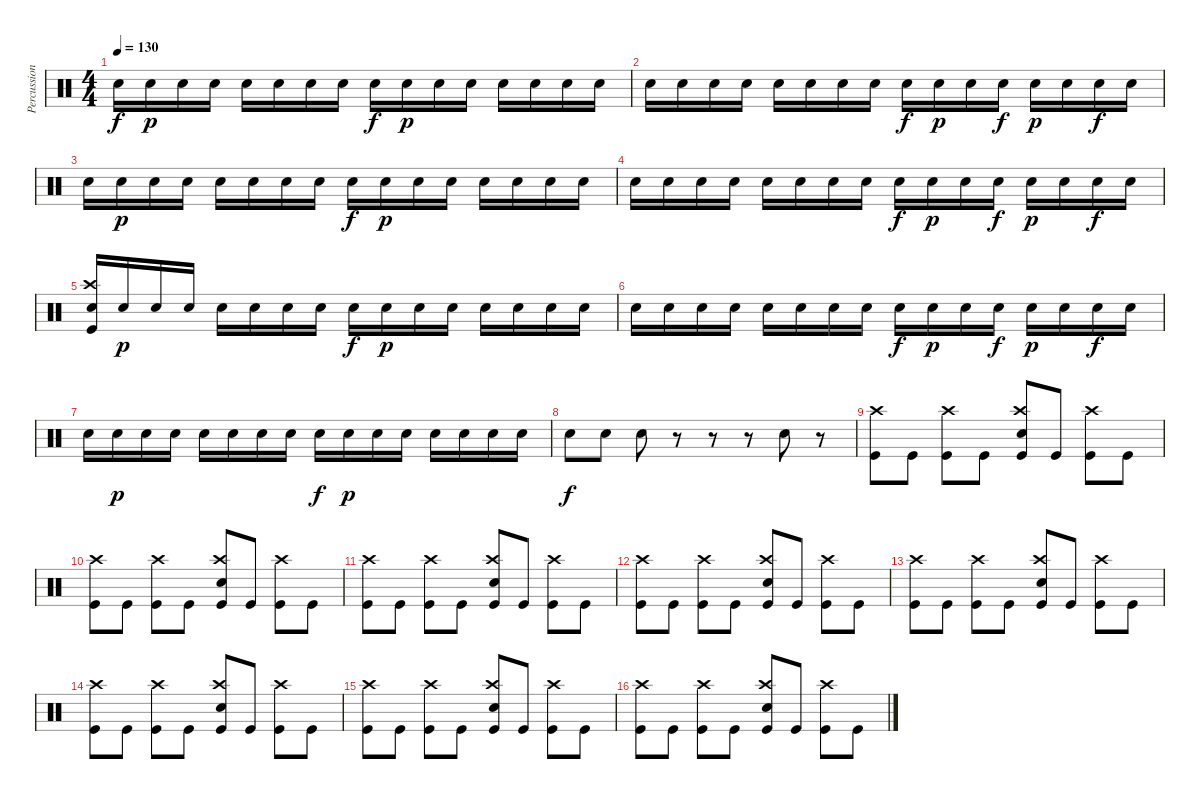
\track ("Percussion" "Percussion") {instrument percussion}
\staff {score}
\articulation defaults
\ts (4 4)
\tempo 130
\clef neutral
\ks c "Electric Snare (hit)".16{dy f} "Electric Snare (hit)".16{dy p} "Electric Snare (hit)".16 "Electric Snare (hit)".16 "Electric Snare (hit)".16 "Electric Snare (hit)".16 "Electric Snare (hit)".16 "Electric Snare (hit)".16 "Electric Snare (hit)".16{dy f} "Electric Snare (hit)".16{dy p} "Electric Snare (hit)".16 "Electric Snare (hit)".16 "Electric Snare (hit)".16 "Electric Snare (hit)".16 "Electric Snare (hit)".16 "Electric Snare (hit)".16
|
"Electric Snare (hit)".16 "Electric Snare (hit)".16 "Electric Snare (hit)".16 "Electric Snare (hit)".16 "Electric Snare (hit)".16 "Electric Snare (hit)".16 "Electric Snare (hit)".16 "Electric Snare (hit)".16 "Electric Snare (hit)".16{dy f} "Electric Snare (hit)".16{dy p} "Electric Snare (hit)".16 "Electric Snare (hit)".16{dy f} "Electric Snare (hit)".16{dy p} "Electric Snare (hit)".16 "Electric Snare (hit)".16{dy f} "Electric Snare (hit)".16 |
"Electric Snare (hit)".16 "Electric Snare (hit)".16{dy p} "Electric Snare (hit)".16 "Electric Snare (hit)".16 "Electric Snare (hit)".16 "Electric Snare (hit)".16 "Electric Snare (hit)".16 "Electric Snare (hit)".16 "Electric Snare (hit)".16{dy f} "Electric Snare (hit)".16{dy p} "Electric Snare (hit)".16 "Electric Snare (hit)".16 "Electric Snare (hit)".16 "Electric Snare (hit)".16 "Electric Snare (hit)".16 "Electric Snare (hit)".16 |
"Electric Snare (hit)".16 "Electric Snare (hit)".16 "Electric Snare (hit)".16 "Electric Snare (hit)".16 "Electric Snare (hit)".16 "Electric Snare (hit)".16 "Electric Snare (hit)".16 "Electric Snare (hit)".16 "Electric Snare (hit)".16{dy f} "Electric Snare (hit)".16{dy p} "Electric Snare (hit)".16 "Electric Snare (hit)".16{dy f} "Electric Snare (hit)".16{dy p} "Electric Snare (hit)".16 "Electric Snare (hit)".16{dy f} "Electric Snare (hit)".16 |
("Crash high (hit)" "Kick (hit)" "Electric Snare (hit)").16 "Electric Snare (hit)".16{dy p} "Electric Snare (hit)".16 "Electric Snare (hit)".16 "Electric Snare (hit)".16 "Electric Snare (hit)".16 "Electric Snare (hit)".16 "Electric Snare (hit)".16 "Electric Snare (hit)".16{dy f} "Electric Snare (hit)".16{dy p} "Electric Snare (hit)".16 "Electric Snare (hit)".16 "Electric Snare (hit)".16 "Electric Snare (hit)".16 "Electric Snare (hit)".16 "Electric Snare (hit)".16 |
"Electric Snare (hit)".16 "Electric Snare (hit)".16 "Electric Snare (hit)".16 "Electric Snare (hit)".16 "Electric Snare (hit)".16 "Electric Snare (hit)".16 "Electric Snare (hit)".16 "Electric Snare (hit)".16 "Electric Snare (hit)".16{dy f} "Electric Snare (hit)".16{dy p} "Electric Snare (hit)".16 "Electric Snare (hit)".16{dy f} "Electric Snare (hit)".16{dy p} "Electric Snare (hit)".16 "Electric Snare (hit)".16{dy f} "Electric Snare (hit)".16 |
"Electric Snare (hit)".16 "Electric Snare (hit)".16{dy p} "Electric Snare (hit)".16 "Electric Snare (hit)".16 "Electric Snare (hit)".16 "Electric Snare (hit)".16 "Electric Snare (hit)".16 "Electric Snare (hit)".16 "Electric Snare (hit)".16{dy f} "Electric Snare (hit)".16{dy p} "Electric Snare (hit)".16 "Electric Snare (hit)".16 "Electric Snare (hit)".16 "Electric Snare (hit)".16 "Electric Snare (hit)".16 "Electric Snare (hit)".16 |
"Electric Snare (hit)".8{dy f} "Electric Snare (hit)".8 "Electric Snare (hit)".8 r.8 r.8 r.8 "Electric Snare (hit)".8 r.8 |
("Crash high (hit)" "Kick (hit)").8 "Kick (hit)".8 ("Crash high (hit)" "Kick (hit)").8 "Kick (hit)".8 ("Crash high (hit)" "Electric Snare (hit)" "Kick (hit)").8 "Kick (hit)".8 ("Crash high (hit)" "Kick (hit)").8 "Kick (hit)".8 |
("Crash high (hit)" "Kick (hit)").8 "Kick (hit)".8 ("Crash high (hit)" "Kick (hit)").8 "Kick (hit)".8 ("Crash high (hit)" "Electric Snare (hit)" "Kick (hit)").8 "Kick (hit)".8 ("Crash high (hit)" "Kick (hit)").8 "Kick (hit)".8 |
("Crash high (hit)" "Kick (hit)").8 "Kick (hit)".8 ("Crash high (hit)" "Kick (hit)").8 "Kick (hit)".8 ("Crash high (hit)" "Electric Snare (hit)" "Kick (hit)").8 "Kick (hit)".8 ("Crash high (hit)" "Kick (hit)").8 "Kick (hit)".8 |
("Crash high (hit)" "Kick (hit)").8 "Kick (hit)".8 ("Crash high (hit)" "Kick (hit)").8 "Kick (hit)".8 ("Crash high (hit)" "Electric Snare (hit)" "Kick (hit)").8 "Kick (hit)".8 ("Crash high (hit)" "Kick (hit)").8 "Kick (hit)".8 |
("Crash high (hit)" "Kick (hit)").8 "Kick (hit)".8 ("Crash high (hit)" "Kick (hit)").8 "Kick (hit)".8 ("Crash high (hit)" "Electric Snare (hit)" "Kick (hit)").8 "Kick (hit)".8 ("Crash high (hit)" "Kick (hit)").8 "Kick (hit)".8 |
("Crash high (hit)" "Kick (hit)").8 "Kick (hit)".8 ("Crash high (hit)" "Kick (hit)").8 "Kick (hit)".8 ("Crash high (hit)" "Electric Snare (hit)" "Kick (hit)").8 "Kick (hit)".8 ("Crash high (hit)" "Kick (hit)").8 "Kick (hit)".8 |
("Crash high (hit)" "Kick (hit)").8 "Kick (hit)".8 ("Crash high (hit)" "Kick (hit)").8 "Kick (hit)".8 ("Crash high (hit)" "Electric Snare (hit)" "Kick (hit)").8 "Kick (hit)".8 ("Crash high (hit)" "Kick (hit)").8 "Kick (hit)".8 |
("Crash high (hit)" "Kick (hit)").8 "Kick (hit)".8 ("Crash high (hit)" "Kick (hit)").8 "Kick (hit)".8 ("Crash high (hit)" "Electric Snare (hit)" "Kick (hit)").8 "Kick (hit)".8 ("Crash high (hit)" "Kick (hit)").8 "Kick (hit)".8
